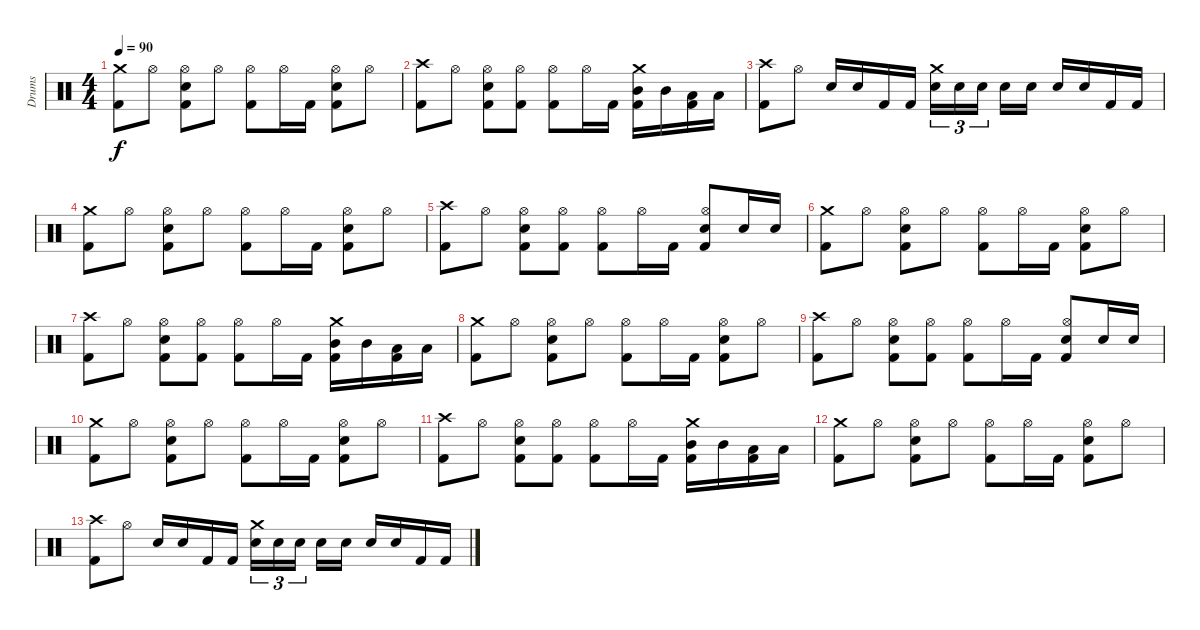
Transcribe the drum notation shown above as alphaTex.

\track ("Drums" "Drums") {instrument percussion}
\staff {score}
\articulation defaults
\ts (4 4)
\tempo 90
\clef neutral
\ks c
("Crash medium (hit)" "Kick (hit) 2").8{dy f} "Hi-Hat (open)".8 ("Hi-Hat (open)" "Electric Snare (hit)" "Kick (hit) 2").8 "Hi-Hat (open)".8 ("Hi-Hat (open)" "Kick (hit) 2").8 "Hi-Hat (open)".16 "Kick (hit) 2".16 ("Hi-Hat (open)" "Electric Snare (hit)" "Kick (hit) 2").8 "Hi-Hat (open)".8 |
("Crash high (hit)" "Kick (hit) 2").8 "Hi-Hat (open)".8 ("Hi-Hat (open)" "Electric Snare (hit)" "Kick (hit) 2").8 ("Hi-Hat (open)" "Kick (hit) 2").8 ("Hi-Hat (open)" "Kick (hit) 2").8 "Hi-Hat (open)".16 "Kick (hit) 2".16 ("Crash medium (hit)" "Mid Tom (hit)" "Kick (hit) 2").16 "Mid Tom (hit)".16 ("Low Tom (hit)" "Kick (hit) 2").16 "Low Tom (hit)".16 |
("Crash high (hit)" "Kick (hit) 2").8 "Hi-Hat (open)".8 "Electric Snare (hit)".16 "Electric Snare (hit)".16 "Kick (hit) 2".16 "Kick (hit) 2".16 ("Crash medium (hit)" "Electric Snare (hit)").16{tu (3 2)} "Electric Snare (hit)".16{tu (3 2)} "Electric Snare (hit)".16{tu (3 2) beam splitsecondary} "Electric Snare (hit)".16 "Electric Snare (hit)".16 "Electric Snare (hit)".16 "Electric Snare (hit)".16 "Kick (hit) 2".16 "Kick (hit) 2".16 |
("Crash medium (hit)" "Kick (hit) 2").8 "Hi-Hat (open)".8 ("Hi-Hat (open)" "Electric Snare (hit)" "Kick (hit) 2").8 "Hi-Hat (open)".8 ("Hi-Hat (open)" "Kick (hit) 2").8 "Hi-Hat (open)".16 "Kick (hit) 2".16 ("Hi-Hat (open)" "Electric Snare (hit)" "Kick (hit) 2").8 "Hi-Hat (open)".8 |
("Crash high (hit)" "Kick (hit) 2").8 "Hi-Hat (open)".8 ("Hi-Hat (open)" "Electric Snare (hit)" "Kick (hit) 2").8 ("Hi-Hat (open)" "Kick (hit) 2").8 ("Hi-Hat (open)" "Kick (hit) 2").8 "Hi-Hat (open)".16 "Kick (hit) 2".16 ("Hi-Hat (open)" "Electric Snare (hit)" "Kick (hit) 2").8 "Electric Snare (hit)".16 "Electric Snare (hit)".16 |
("Crash medium (hit)" "Kick (hit) 2").8 "Hi-Hat (open)".8 ("Hi-Hat (open)" "Electric Snare (hit)" "Kick (hit) 2").8 "Hi-Hat (open)".8 ("Hi-Hat (open)" "Kick (hit) 2").8 "Hi-Hat (open)".16 "Kick (hit) 2".16 ("Hi-Hat (open)" "Electric Snare (hit)" "Kick (hit) 2").8 "Hi-Hat (open)".8 |
("Crash high (hit)" "Kick (hit) 2").8 "Hi-Hat (open)".8 ("Hi-Hat (open)" "Electric Snare (hit)" "Kick (hit) 2").8 ("Hi-Hat (open)" "Kick (hit) 2").8 ("Hi-Hat (open)" "Kick (hit) 2").8 "Hi-Hat (open)".16 "Kick (hit) 2".16 ("Crash medium (hit)" "Mid Tom (hit)" "Kick (hit) 2").16 "Mid Tom (hit)".16 ("Low Tom (hit)" "Kick (hit) 2").16 "Low Tom (hit)".16 |
("Crash medium (hit)" "Kick (hit) 2").8 "Hi-Hat (open)".8 ("Hi-Hat (open)" "Electric Snare (hit)" "Kick (hit) 2").8 "Hi-Hat (open)".8 ("Hi-Hat (open)" "Kick (hit) 2").8 "Hi-Hat (open)".16 "Kick (hit) 2".16 ("Hi-Hat (open)" "Electric Snare (hit)" "Kick (hit) 2").8 "Hi-Hat (open)".8 |
("Crash high (hit)" "Kick (hit) 2").8 "Hi-Hat (open)".8 ("Hi-Hat (open)" "Electric Snare (hit)" "Kick (hit) 2").8 ("Hi-Hat (open)" "Kick (hit) 2").8 ("Hi-Hat (open)" "Kick (hit) 2").8 "Hi-Hat (open)".16 "Kick (hit) 2".16 ("Hi-Hat (open)" "Electric Snare (hit)" "Kick (hit) 2").8 "Electric Snare (hit)".16 "Electric Snare (hit)".16 |
("Crash medium (hit)" "Kick (hit) 2").8 "Hi-Hat (open)".8 ("Hi-Hat (open)" "Electric Snare (hit)" "Kick (hit) 2").8 "Hi-Hat (open)".8 ("Hi-Hat (open)" "Kick (hit) 2").8 "Hi-Hat (open)".16 "Kick (hit) 2".16 ("Hi-Hat (open)" "Electric Snare (hit)" "Kick (hit) 2").8 "Hi-Hat (open)".8 |
("Crash high (hit)" "Kick (hit) 2").8 "Hi-Hat (open)".8 ("Hi-Hat (open)" "Electric Snare (hit)" "Kick (hit) 2").8 ("Hi-Hat (open)" "Kick (hit) 2").8 ("Hi-Hat (open)" "Kick (hit) 2").8 "Hi-Hat (open)".16 "Kick (hit) 2".16 ("Crash medium (hit)" "Mid Tom (hit)" "Kick (hit) 2").16 "Mid Tom (hit)".16 ("Low Tom (hit)" "Kick (hit) 2").16 "Low Tom (hit)".16 |
("Crash medium (hit)" "Kick (hit) 2").8 "Hi-Hat (open)".8 ("Hi-Hat (open)" "Electric Snare (hit)" "Kick (hit) 2").8 "Hi-Hat (open)".8 ("Hi-Hat (open)" "Kick (hit) 2").8 "Hi-Hat (open)".16 "Kick (hit) 2".16 ("Hi-Hat (open)" "Electric Snare (hit)" "Kick (hit) 2").8 "Hi-Hat (open)".8 |
("Crash high (hit)" "Kick (hit) 2").8 "Hi-Hat (open)".8 "Electric Snare (hit)".16 "Electric Snare (hit)".16 "Kick (hit) 2".16 "Kick (hit) 2".16 ("Crash medium (hit)" "Electric Snare (hit)").16{tu (3 2)} "Electric Snare (hit)".16{tu (3 2)} "Electric Snare (hit)".16{tu (3 2) beam splitsecondary} "Electric Snare (hit)".16 "Electric Snare (hit)".16 "Electric Snare (hit)".16 "Electric Snare (hit)".16 "Kick (hit) 2".16 "Kick (hit) 2".16
